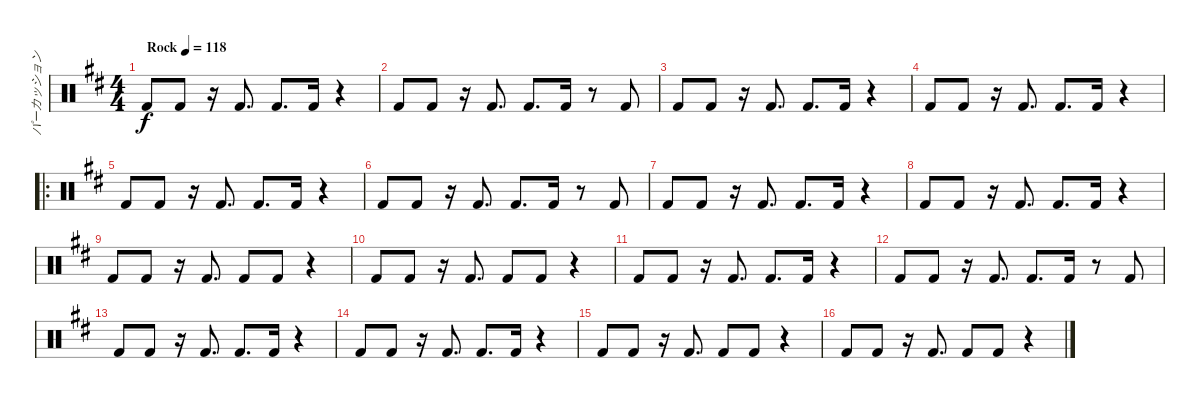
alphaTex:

\track ("パーカッション" "パーカッション") {instrument percussion}
\staff {score}
\articulation defaults
\ts (4 4)
\tempo (118 "Rock")
\clef neutral
\ks d "Kick (hit) 2".8{dy f} "Kick (hit) 2".8
r.16 "Kick (hit) 2".8{d} "Kick (hit) 2".8{d} "Kick (hit) 2".16 r.4 |
"Kick (hit) 2".8 "Kick (hit) 2".8 r.16 "Kick (hit) 2".8{d} "Kick (hit) 2".8{d} "Kick (hit) 2".16 r.8 "Kick (hit) 2".8 |
"Kick (hit) 2".8 "Kick (hit) 2".8 r.16 "Kick (hit) 2".8{d} "Kick (hit) 2".8{d} "Kick (hit) 2".16 r.4 |
"Kick (hit) 2".8 "Kick (hit) 2".8 r.16 "Kick (hit) 2".8{d} "Kick (hit) 2".8{d} "Kick (hit) 2".16 r.4 |
\ro "Kick (hit) 2".8 "Kick (hit) 2".8
r.16 "Kick (hit) 2".8{d} "Kick (hit) 2".8{d} "Kick (hit) 2".16 r.4 |
"Kick (hit) 2".8 "Kick (hit) 2".8 r.16 "Kick (hit) 2".8{d} "Kick (hit) 2".8{d} "Kick (hit) 2".16 r.8 "Kick (hit) 2".8 |
"Kick (hit) 2".8 "Kick (hit) 2".8 r.16 "Kick (hit) 2".8{d} "Kick (hit) 2".8{d} "Kick (hit) 2".16 r.4 |
"Kick (hit) 2".8 "Kick (hit) 2".8 r.16 "Kick (hit) 2".8{d} "Kick (hit) 2".8{d} "Kick (hit) 2".16 r.4 |
"Kick (hit) 2".8 "Kick (hit) 2".8 r.16 "Kick (hit) 2".8{d} "Kick (hit) 2".8 "Kick (hit) 2".8 r.4 |
"Kick (hit) 2".8 "Kick (hit) 2".8 r.16 "Kick (hit) 2".8{d} "Kick (hit) 2".8 "Kick (hit) 2".8 r.4 |
"Kick (hit) 2".8 "Kick (hit) 2".8 r.16 "Kick (hit) 2".8{d} "Kick (hit) 2".8{d} "Kick (hit) 2".16 r.4 |
"Kick (hit) 2".8 "Kick (hit) 2".8 r.16 "Kick (hit) 2".8{d} "Kick (hit) 2".8{d} "Kick (hit) 2".16 r.8 "Kick (hit) 2".8 |
"Kick (hit) 2".8 "Kick (hit) 2".8 r.16 "Kick (hit) 2".8{d} "Kick (hit) 2".8{d} "Kick (hit) 2".16 r.4 |
"Kick (hit) 2".8 "Kick (hit) 2".8 r.16 "Kick (hit) 2".8{d} "Kick (hit) 2".8{d} "Kick (hit) 2".16 r.4 |
"Kick (hit) 2".8 "Kick (hit) 2".8 r.16 "Kick (hit) 2".8{d} "Kick (hit) 2".8 "Kick (hit) 2".8 r.4 |
"Kick (hit) 2".8 "Kick (hit) 2".8 r.16 "Kick (hit) 2".8{d} "Kick (hit) 2".8 "Kick (hit) 2".8 r.4
